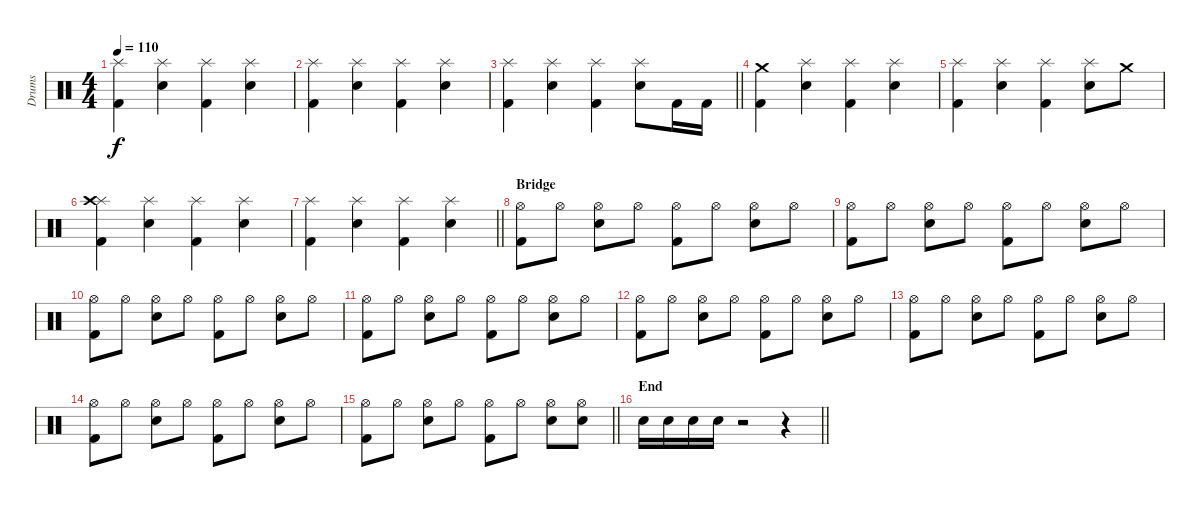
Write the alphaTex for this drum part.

\track ("Drums" "Drums") {instrument percussion}
\staff {score}
\articulation defaults
\ts (4 4)
\tempo 110
\clef neutral
\ks c
("Splash (hit)" "Kick (hit) 2").4{dy f} ("Splash (hit)" "Snare (hit) 2").4 ("Splash (hit)" "Kick (hit) 2").4 ("Splash (hit)" "Snare (hit) 2").4 |
("Splash (hit)" "Kick (hit) 2").4 ("Splash (hit)" "Snare (hit) 2").4 ("Splash (hit)" "Kick (hit) 2").4 ("Splash (hit)" "Snare (hit) 2").4 |
\barLineRight lightlight
("Splash (hit)" "Kick (hit) 2").4 ("Splash (hit)" "Snare (hit) 2").4 ("Splash (hit)" "Kick (hit) 2").4 ("Splash (hit)" "Snare (hit) 2").8 "Kick (hit) 2".16 "Kick (hit) 2".16 |
("Crash medium (hit)" "Kick (hit) 2").4 ("Splash (hit)" "Snare (hit) 2").4 ("Splash (hit)" "Kick (hit) 2").4 ("Splash (hit)" "Snare (hit) 2").4 |
("Splash (hit)" "Kick (hit) 2").4 ("Splash (hit)" "Snare (hit) 2").4 ("Splash (hit)" "Kick (hit) 2").4 ("Splash (hit)" "Snare (hit) 2").8 "Crash medium (hit)".8 |
("Splash (hit)" "Crash high (hit)" "Kick (hit) 2").4 ("Splash (hit)" "Snare (hit) 2").4 ("Splash (hit)" "Kick (hit) 2").4 ("Splash (hit)" "Snare (hit) 2").4 |
\barLineRight lightlight
("Splash (hit)" "Kick (hit) 2").4 ("Splash (hit)" "Snare (hit) 2").4 ("Splash (hit)" "Kick (hit) 2").4 ("Splash (hit)" "Snare (hit) 2").4 |
\section ("" "Bridge")
("Hi-Hat (open)" "Kick (hit) 2").8 "Hi-Hat (open)".8 ("Hi-Hat (open)" "Snare (hit) 2").8 "Hi-Hat (open)".8 ("Hi-Hat (open)" "Kick (hit) 2").8 "Hi-Hat (open)".8 ("Hi-Hat (open)" "Snare (hit) 2").8 "Hi-Hat (open)".8 |
("Hi-Hat (open)" "Kick (hit) 2").8 "Hi-Hat (open)".8 ("Hi-Hat (open)" "Snare (hit) 2").8 "Hi-Hat (open)".8 ("Hi-Hat (open)" "Kick (hit) 2").8 "Hi-Hat (open)".8 ("Hi-Hat (open)" "Snare (hit) 2").8 "Hi-Hat (open)".8 |
("Hi-Hat (open)" "Kick (hit) 2").8 "Hi-Hat (open)".8 ("Hi-Hat (open)" "Snare (hit) 2").8 "Hi-Hat (open)".8 ("Hi-Hat (open)" "Kick (hit) 2").8 "Hi-Hat (open)".8 ("Hi-Hat (open)" "Snare (hit) 2").8 "Hi-Hat (open)".8 |
("Hi-Hat (open)" "Kick (hit) 2").8 "Hi-Hat (open)".8 ("Hi-Hat (open)" "Snare (hit) 2").8 "Hi-Hat (open)".8 ("Hi-Hat (open)" "Kick (hit) 2").8 "Hi-Hat (open)".8 ("Hi-Hat (open)" "Snare (hit) 2").8 "Hi-Hat (open)".8 |
("Hi-Hat (open)" "Kick (hit) 2").8 "Hi-Hat (open)".8 ("Hi-Hat (open)" "Snare (hit) 2").8 "Hi-Hat (open)".8 ("Hi-Hat (open)" "Kick (hit) 2").8 "Hi-Hat (open)".8 ("Hi-Hat (open)" "Snare (hit) 2").8 "Hi-Hat (open)".8 |
("Hi-Hat (open)" "Kick (hit) 2").8 "Hi-Hat (open)".8 ("Hi-Hat (open)" "Snare (hit) 2").8 "Hi-Hat (open)".8 ("Hi-Hat (open)" "Kick (hit) 2").8 "Hi-Hat (open)".8 ("Hi-Hat (open)" "Snare (hit) 2").8 "Hi-Hat (open)".8 |
("Hi-Hat (open)" "Kick (hit) 2").8 "Hi-Hat (open)".8 ("Hi-Hat (open)" "Snare (hit) 2").8 "Hi-Hat (open)".8 ("Hi-Hat (open)" "Kick (hit) 2").8 "Hi-Hat (open)".8 ("Hi-Hat (open)" "Snare (hit) 2").8 "Hi-Hat (open)".8 |
\barLineRight lightlight
("Hi-Hat (open)" "Kick (hit) 2").8 "Hi-Hat (open)".8 ("Hi-Hat (open)" "Snare (hit) 2").8 "Hi-Hat (open)".8 ("Hi-Hat (open)" "Kick (hit) 2").8 "Hi-Hat (open)".8 ("Hi-Hat (open)" "Snare (hit) 2").8 ("Hi-Hat (open)" "Snare (hit) 2").8 |
\section ("" "End")
\barLineRight lightlight "Snare (hit) 2".16 "Snare (hit) 2".16 "Snare (hit) 2".16 "Snare (hit) 2".16
r.2 r.4
